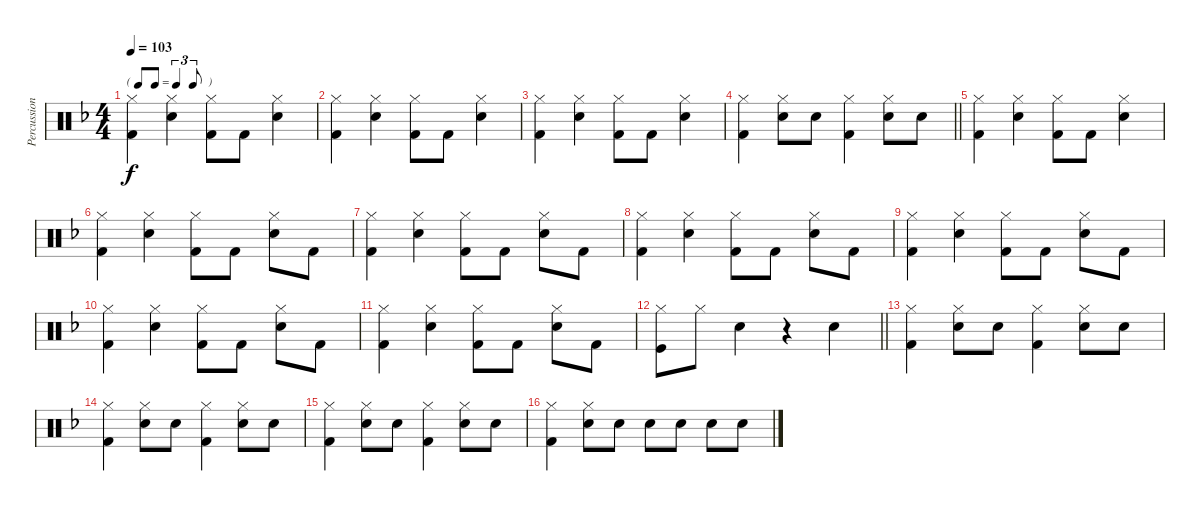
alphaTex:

\track ("Percussion" "Percussion") {instrument percussion}
\staff {score}
\articulation defaults
\ts (4 4)
\tf triplet8th
\tempo 103
\clef neutral
\ks f
("Hi-Hat (closed)" "Kick (hit) 2").4{dy f} ("Hi-Hat (closed)" "Snare (hit) 2").4 ("Hi-Hat (closed)" "Kick (hit) 2").8 "Kick (hit) 2".8 ("Hi-Hat (closed)" "Snare (hit) 2").4 |
("Hi-Hat (closed)" "Kick (hit) 2").4 ("Hi-Hat (closed)" "Snare (hit) 2").4 ("Hi-Hat (closed)" "Kick (hit) 2").8 "Kick (hit) 2".8 ("Hi-Hat (closed)" "Snare (hit) 2").4 |
("Hi-Hat (closed)" "Kick (hit) 2").4 ("Hi-Hat (closed)" "Snare (hit) 2").4 ("Hi-Hat (closed)" "Kick (hit) 2").8 "Kick (hit) 2".8 ("Hi-Hat (closed)" "Snare (hit) 2").4 |
\barLineRight lightlight
("Hi-Hat (closed)" "Kick (hit) 2").4 ("Hi-Hat (closed)" "Snare (hit) 2").8 "Snare (hit) 2".8 ("Hi-Hat (closed)" "Kick (hit) 2").4 ("Hi-Hat (closed)" "Snare (hit) 2").8 "Snare (hit) 2".8 |
("Hi-Hat (closed)" "Kick (hit) 2").4 ("Hi-Hat (closed)" "Snare (hit) 2").4 ("Hi-Hat (closed)" "Kick (hit) 2").8 "Kick (hit) 2".8 ("Hi-Hat (closed)" "Snare (hit) 2").4 |
("Hi-Hat (closed)" "Kick (hit) 2").4 ("Hi-Hat (closed)" "Snare (hit) 2").4 ("Hi-Hat (closed)" "Kick (hit) 2").8 "Kick (hit) 2".8 ("Hi-Hat (closed)" "Snare (hit) 2").8 "Kick (hit) 2".8 |
("Hi-Hat (closed)" "Kick (hit) 2").4 ("Hi-Hat (closed)" "Snare (hit) 2").4 ("Hi-Hat (closed)" "Kick (hit) 2").8 "Kick (hit) 2".8 ("Hi-Hat (closed)" "Snare (hit) 2").8 "Kick (hit) 2".8 |
("Hi-Hat (closed)" "Kick (hit) 2").4 ("Hi-Hat (closed)" "Snare (hit) 2").4 ("Hi-Hat (closed)" "Kick (hit) 2").8 "Kick (hit) 2".8 ("Hi-Hat (closed)" "Snare (hit) 2").8 "Kick (hit) 2".8 |
("Hi-Hat (closed)" "Kick (hit) 2").4 ("Hi-Hat (closed)" "Snare (hit) 2").4 ("Hi-Hat (closed)" "Kick (hit) 2").8 "Kick (hit) 2".8 ("Hi-Hat (closed)" "Snare (hit) 2").8 "Kick (hit) 2".8 |
("Hi-Hat (closed)" "Kick (hit) 2").4 ("Hi-Hat (closed)" "Snare (hit) 2").4 ("Hi-Hat (closed)" "Kick (hit) 2").8 "Kick (hit) 2".8 ("Hi-Hat (closed)" "Snare (hit) 2").8 "Kick (hit) 2".8 |
("Hi-Hat (closed)" "Kick (hit) 2").4 ("Hi-Hat (closed)" "Snare (hit) 2").4 ("Hi-Hat (closed)" "Kick (hit) 2").8 "Kick (hit) 2".8 ("Hi-Hat (closed)" "Snare (hit) 2").8 "Kick (hit) 2".8 |
\barLineRight lightlight
("Hi-Hat (closed)" "Kick (hit)").8 "Hi-Hat (closed)".8 "Snare (hit) 2".4 r.4 "Snare (hit) 2".4 |
("Hi-Hat (closed)" "Kick (hit) 2").4 ("Hi-Hat (closed)" "Snare (hit) 2").8 "Snare (hit) 2".8 ("Hi-Hat (closed)" "Kick (hit) 2").4 ("Hi-Hat (closed)" "Snare (hit) 2").8 "Snare (hit) 2".8 |
("Hi-Hat (closed)" "Kick (hit) 2").4 ("Hi-Hat (closed)" "Snare (hit) 2").8 "Snare (hit) 2".8 ("Hi-Hat (closed)" "Kick (hit) 2").4 ("Hi-Hat (closed)" "Snare (hit) 2").8 "Snare (hit) 2".8 |
("Hi-Hat (closed)" "Kick (hit) 2").4 ("Hi-Hat (closed)" "Snare (hit) 2").8 "Snare (hit) 2".8 ("Hi-Hat (closed)" "Kick (hit) 2").4 ("Hi-Hat (closed)" "Snare (hit) 2").8 "Snare (hit) 2".8 |
("Hi-Hat (closed)" "Kick (hit) 2").4 ("Hi-Hat (closed)" "Snare (hit) 2").8 "Snare (hit) 2".8 "Snare (hit) 2".8 "Snare (hit) 2".8 "Snare (hit) 2".8 "Snare (hit) 2".8
